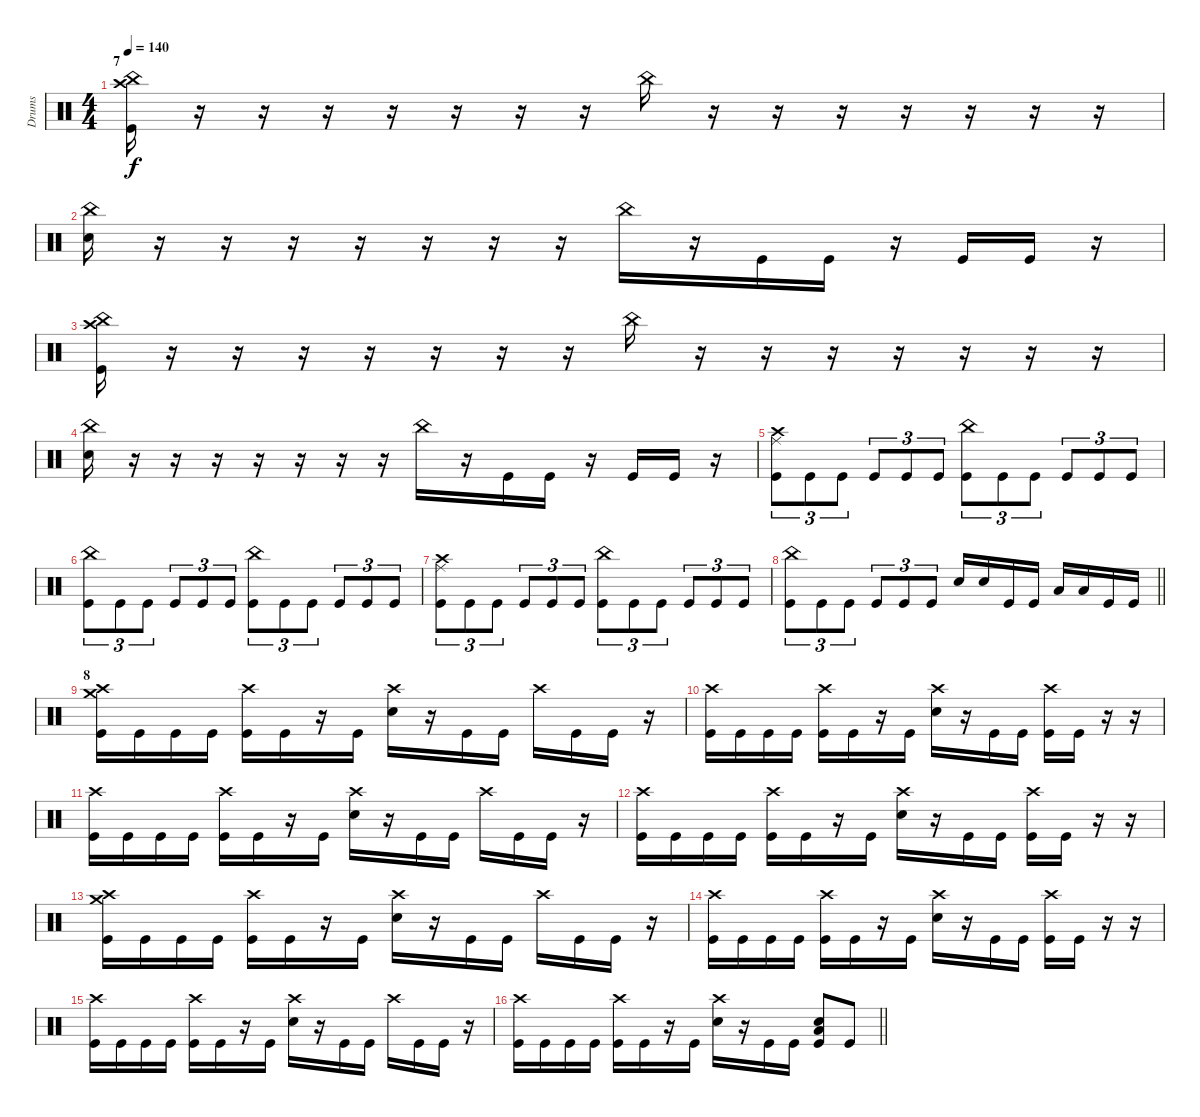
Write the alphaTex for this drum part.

\track ("Drums" "Drums") {instrument percussion}
\staff {score}
\articulation defaults
\ts (4 4)
\section ("" "7")
\tempo 140
\clef neutral
\ks c
("Kick (hit)" "China (hit)" "Crash high (hit)").16{dy f} r.16 r.16 r.16 r.16 r.16 r.16 r.16 "China (hit)".16 r.16 r.16 r.16 r.16 r.16 r.16 r.16 |
("Snare (hit) 2" "China (hit)").16 r.16 r.16 r.16 r.16 r.16 r.16 r.16 "China (hit)".16 r.16 "Kick (hit)".16 "Kick (hit)".16 r.16 "Kick (hit)".16 "Kick (hit)".16 r.16 |
("Kick (hit)" "China (hit)" "Crash high (hit)").16 r.16 r.16 r.16 r.16 r.16 r.16 r.16 "China (hit)".16 r.16 r.16 r.16 r.16 r.16 r.16 r.16 |
("Snare (hit) 2" "China (hit)").16 r.16 r.16 r.16 r.16 r.16 r.16 r.16 "China (hit)".16 r.16 "Kick (hit)".16 "Kick (hit)".16 r.16 "Kick (hit)".16 "Kick (hit)".16 r.16 |
("Kick (hit)" "Crash high (hit)" "Ride (middle)").8{tu (3 2)} "Kick (hit)".8{tu (3 2)} "Kick (hit)".8{tu (3 2)} "Kick (hit)".8{tu (3 2)} "Kick (hit)".8{tu (3 2)} "Kick (hit)".8{tu (3 2)} ("Kick (hit)" "China (hit)").8{tu (3 2)} "Kick (hit)".8{tu (3 2)} "Kick (hit)".8{tu (3 2)} "Kick (hit)".8{tu (3 2)} "Kick (hit)".8{tu (3 2)} "Kick (hit)".8{tu (3 2)} |
("Kick (hit)" "China (hit)").8{tu (3 2)} "Kick (hit)".8{tu (3 2)} "Kick (hit)".8{tu (3 2)} "Kick (hit)".8{tu (3 2)} "Kick (hit)".8{tu (3 2)} "Kick (hit)".8{tu (3 2)} ("Kick (hit)" "China (hit)").8{tu (3 2)} "Kick (hit)".8{tu (3 2)} "Kick (hit)".8{tu (3 2)} "Kick (hit)".8{tu (3 2)} "Kick (hit)".8{tu (3 2)} "Kick (hit)".8{tu (3 2)} |
("Kick (hit)" "Crash high (hit)" "Ride (middle)").8{tu (3 2)} "Kick (hit)".8{tu (3 2)} "Kick (hit)".8{tu (3 2)} "Kick (hit)".8{tu (3 2)} "Kick (hit)".8{tu (3 2)} "Kick (hit)".8{tu (3 2)} ("Kick (hit)" "China (hit)").8{tu (3 2)} "Kick (hit)".8{tu (3 2)} "Kick (hit)".8{tu (3 2)} "Kick (hit)".8{tu (3 2)} "Kick (hit)".8{tu (3 2)} "Kick (hit)".8{tu (3 2)} |
\barLineRight lightlight
("Kick (hit)" "China (hit)").8{tu (3 2)} "Kick (hit)".8{tu (3 2)} "Kick (hit)".8{tu (3 2)} "Kick (hit)".8{tu (3 2)} "Kick (hit)".8{tu (3 2)} "Kick (hit)".8{tu (3 2)} "Snare (hit) 2".16 "Snare (hit) 2".16 "Kick (hit)".16 "Kick (hit)".16 "Low Tom (hit)".16 "Low Tom (hit)".16 "Kick (hit)".16 "Kick (hit)".16 |
\section ("" "8")
("Kick (hit)" "Crash high (hit)" "Crash medium (hit)").16 "Kick (hit)".16 "Kick (hit)".16 "Kick (hit)".16 ("Kick (hit)" "Crash high (hit)").16 "Kick (hit)".16 r.16 "Kick (hit)".16 ("Snare (hit) 2" "Crash high (hit)").16 r.16 "Kick (hit)".16 "Kick (hit)".16 "Crash high (hit)".16 "Kick (hit)".16 "Kick (hit)".16 r.16 |
("Kick (hit)" "Crash high (hit)").16 "Kick (hit)".16 "Kick (hit)".16 "Kick (hit)".16 ("Kick (hit)" "Crash high (hit)").16 "Kick (hit)".16 r.16 "Kick (hit)".16 ("Snare (hit) 2" "Crash high (hit)").16 r.16 "Kick (hit)".16 "Kick (hit)".16 ("Kick (hit)" "Crash high (hit)").16 "Kick (hit)".16 r.16 r.16 |
("Kick (hit)" "Crash high (hit)").16 "Kick (hit)".16 "Kick (hit)".16 "Kick (hit)".16 ("Kick (hit)" "Crash high (hit)").16 "Kick (hit)".16 r.16 "Kick (hit)".16 ("Snare (hit) 2" "Crash high (hit)").16 r.16 "Kick (hit)".16 "Kick (hit)".16 "Crash high (hit)".16 "Kick (hit)".16 "Kick (hit)".16 r.16 |
("Kick (hit)" "Crash high (hit)").16 "Kick (hit)".16 "Kick (hit)".16 "Kick (hit)".16 ("Kick (hit)" "Crash high (hit)").16 "Kick (hit)".16 r.16 "Kick (hit)".16 ("Snare (hit) 2" "Crash high (hit)").16 r.16 "Kick (hit)".16 "Kick (hit)".16 ("Kick (hit)" "Crash high (hit)").16 "Kick (hit)".16 r.16 r.16 |
("Kick (hit)" "Crash high (hit)" "Crash medium (hit)").16 "Kick (hit)".16 "Kick (hit)".16 "Kick (hit)".16 ("Kick (hit)" "Crash high (hit)").16 "Kick (hit)".16 r.16 "Kick (hit)".16 ("Snare (hit) 2" "Crash high (hit)").16 r.16 "Kick (hit)".16 "Kick (hit)".16 "Crash high (hit)".16 "Kick (hit)".16 "Kick (hit)".16 r.16 |
("Kick (hit)" "Crash high (hit)").16 "Kick (hit)".16 "Kick (hit)".16 "Kick (hit)".16 ("Kick (hit)" "Crash high (hit)").16 "Kick (hit)".16 r.16 "Kick (hit)".16 ("Snare (hit) 2" "Crash high (hit)").16 r.16 "Kick (hit)".16 "Kick (hit)".16 ("Kick (hit)" "Crash high (hit)").16 "Kick (hit)".16 r.16 r.16 |
("Kick (hit)" "Crash high (hit)").16 "Kick (hit)".16 "Kick (hit)".16 "Kick (hit)".16 ("Kick (hit)" "Crash high (hit)").16 "Kick (hit)".16 r.16 "Kick (hit)".16 ("Snare (hit) 2" "Crash high (hit)").16 r.16 "Kick (hit)".16 "Kick (hit)".16 "Crash high (hit)".16 "Kick (hit)".16 "Kick (hit)".16 r.16 |
\barLineRight lightlight
("Kick (hit)" "Crash high (hit)").16 "Kick (hit)".16 "Kick (hit)".16 "Kick (hit)".16 ("Kick (hit)" "Crash high (hit)").16 "Kick (hit)".16 r.16 "Kick (hit)".16 ("Snare (hit) 2" "Crash high (hit)").16 r.16 "Kick (hit)".16 "Kick (hit)".16 ("Kick (hit)" "Low Tom (hit)" "Snare (hit) 2").8 "Kick (hit)".8
